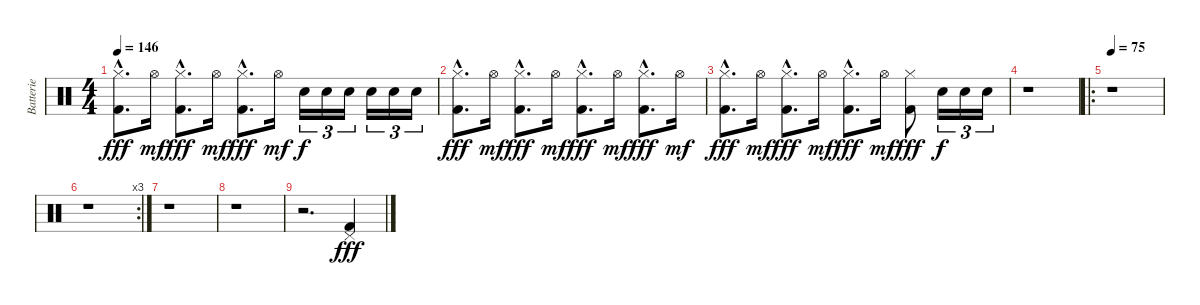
\track ("Batterie" "Batterie") {instrument percussion}
\staff {score}
\articulation defaults
\ts (4 4)
\tempo 146
\clef neutral
\ks c
("Hi-Hat (closed)"{hac} "Kick (hit) 2"{hac}).8{d dy fff} "Hi-Hat (open)".16{dy mf} ("Hi-Hat (closed)"{hac} "Kick (hit) 2"{hac}).8{d dy fff} "Hi-Hat (open)".16{dy mf} ("Hi-Hat (closed)"{hac} "Kick (hit) 2"{hac}).8{d dy fff} "Hi-Hat (open)".16{dy mf} "Electric Snare (hit)".16{tu (3 2) dy f} "Electric Snare (hit)".16{tu (3 2)} "Electric Snare (hit)".16{tu (3 2)} "Electric Snare (hit)".16{tu (3 2)} "Electric Snare (hit)".16{tu (3 2)} "Electric Snare (hit)".16{tu (3 2)} |
("Hi-Hat (closed)"{hac} "Kick (hit) 2"{hac}).8{d dy fff} "Hi-Hat (open)".16{dy mf} ("Hi-Hat (closed)"{hac} "Kick (hit) 2"{hac}).8{d dy fff} "Hi-Hat (open)".16{dy mf} ("Hi-Hat (closed)"{hac} "Kick (hit) 2"{hac}).8{d dy fff} "Hi-Hat (open)".16{dy mf} ("Hi-Hat (closed)"{hac} "Kick (hit) 2"{hac}).8{d dy fff} "Hi-Hat (open)".16{dy mf} |
("Hi-Hat (closed)"{hac} "Kick (hit) 2"{hac}).8{d dy fff} "Hi-Hat (open)".16{dy mf} ("Hi-Hat (closed)"{hac} "Kick (hit) 2"{hac}).8{d dy fff} "Hi-Hat (open)".16{dy mf} ("Hi-Hat (closed)"{hac} "Kick (hit) 2"{hac}).8{d dy fff} "Hi-Hat (open)".16{dy mf} ("Hi-Hat (closed)" "Kick (hit) 2").8{dy fff} "Electric Snare (hit)".16{tu (3 2) dy f} "Electric Snare (hit)".16{tu (3 2)} "Electric Snare (hit)".16{tu (3 2)} |
r.1 |
\ro
\tempo 75
r.1 |
\rc 3
r.1 |
r.1 |
r.1 |
r.2{d} ("Pedal Hi-Hat (hit)" "Kick (hit) 2").4{dy fff volume 16}
